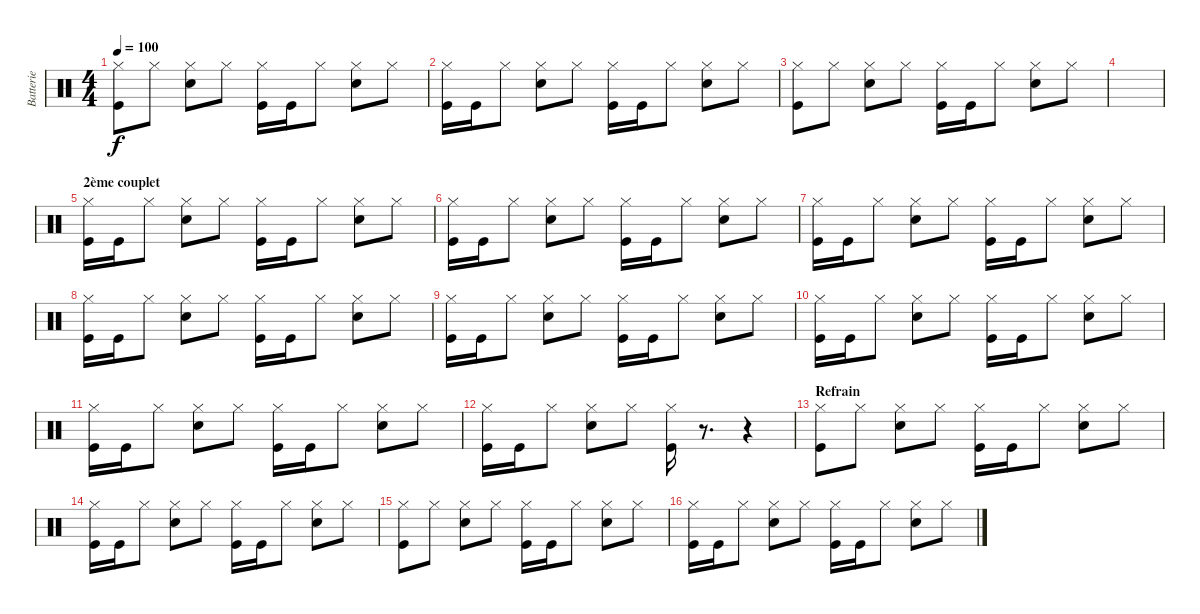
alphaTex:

\track ("Batterie " "Batterie ") {instrument percussion}
\staff {score}
\articulation defaults
\ts (4 4)
\tempo 100
\clef neutral
\ks c
("Hi-Hat (closed)" "Kick (hit)").8{dy f} "Hi-Hat (closed)".8 ("Electric Snare (hit)" "Hi-Hat (closed)").8 "Hi-Hat (closed)".8 ("Hi-Hat (closed)" "Kick (hit)").16 "Kick (hit)".16 "Hi-Hat (closed)".8 ("Electric Snare (hit)" "Hi-Hat (closed)").8 "Hi-Hat (closed)".8 |
("Hi-Hat (closed)" "Kick (hit)").16 "Kick (hit)".16 "Hi-Hat (closed)".8 ("Electric Snare (hit)" "Hi-Hat (closed)").8 "Hi-Hat (closed)".8 ("Hi-Hat (closed)" "Kick (hit)").16 "Kick (hit)".16 "Hi-Hat (closed)".8 ("Electric Snare (hit)" "Hi-Hat (closed)").8 "Hi-Hat (closed)".8 |
("Hi-Hat (closed)" "Kick (hit)").8 "Hi-Hat (closed)".8 ("Electric Snare (hit)" "Hi-Hat (closed)").8 "Hi-Hat (closed)".8 ("Hi-Hat (closed)" "Kick (hit)").16 "Kick (hit)".16 "Hi-Hat (closed)".8 ("Electric Snare (hit)" "Hi-Hat (closed)").8 "Hi-Hat (closed)".8 |
|
\section ("" "2ème couplet")
("Hi-Hat (closed)" "Kick (hit)").16 "Kick (hit)".16 "Hi-Hat (closed)".8 ("Electric Snare (hit)" "Hi-Hat (closed)").8 "Hi-Hat (closed)".8 ("Hi-Hat (closed)" "Kick (hit)").16 "Kick (hit)".16 "Hi-Hat (closed)".8 ("Electric Snare (hit)" "Hi-Hat (closed)").8 "Hi-Hat (closed)".8 |
("Hi-Hat (closed)" "Kick (hit)").16 "Kick (hit)".16 "Hi-Hat (closed)".8 ("Electric Snare (hit)" "Hi-Hat (closed)").8 "Hi-Hat (closed)".8 ("Hi-Hat (closed)" "Kick (hit)").16 "Kick (hit)".16 "Hi-Hat (closed)".8 ("Electric Snare (hit)" "Hi-Hat (closed)").8 "Hi-Hat (closed)".8 |
("Hi-Hat (closed)" "Kick (hit)").16 "Kick (hit)".16 "Hi-Hat (closed)".8 ("Electric Snare (hit)" "Hi-Hat (closed)").8 "Hi-Hat (closed)".8 ("Hi-Hat (closed)" "Kick (hit)").16 "Kick (hit)".16 "Hi-Hat (closed)".8 ("Electric Snare (hit)" "Hi-Hat (closed)").8 "Hi-Hat (closed)".8 |
("Hi-Hat (closed)" "Kick (hit)").16 "Kick (hit)".16 "Hi-Hat (closed)".8 ("Electric Snare (hit)" "Hi-Hat (closed)").8 "Hi-Hat (closed)".8 ("Hi-Hat (closed)" "Kick (hit)").16 "Kick (hit)".16 "Hi-Hat (closed)".8 ("Electric Snare (hit)" "Hi-Hat (closed)").8 "Hi-Hat (closed)".8 |
("Hi-Hat (closed)" "Kick (hit)").16 "Kick (hit)".16 "Hi-Hat (closed)".8 ("Electric Snare (hit)" "Hi-Hat (closed)").8 "Hi-Hat (closed)".8 ("Hi-Hat (closed)" "Kick (hit)").16 "Kick (hit)".16 "Hi-Hat (closed)".8 ("Electric Snare (hit)" "Hi-Hat (closed)").8 "Hi-Hat (closed)".8 |
("Hi-Hat (closed)" "Kick (hit)").16 "Kick (hit)".16 "Hi-Hat (closed)".8 ("Electric Snare (hit)" "Hi-Hat (closed)").8 "Hi-Hat (closed)".8 ("Hi-Hat (closed)" "Kick (hit)").16 "Kick (hit)".16 "Hi-Hat (closed)".8 ("Electric Snare (hit)" "Hi-Hat (closed)").8 "Hi-Hat (closed)".8 |
("Hi-Hat (closed)" "Kick (hit)").16 "Kick (hit)".16 "Hi-Hat (closed)".8 ("Electric Snare (hit)" "Hi-Hat (closed)").8 "Hi-Hat (closed)".8 ("Hi-Hat (closed)" "Kick (hit)").16 "Kick (hit)".16 "Hi-Hat (closed)".8 ("Electric Snare (hit)" "Hi-Hat (closed)").8 "Hi-Hat (closed)".8 |
("Hi-Hat (closed)" "Kick (hit)").16 "Kick (hit)".16 "Hi-Hat (closed)".8 ("Electric Snare (hit)" "Hi-Hat (closed)").8 "Hi-Hat (closed)".8 ("Hi-Hat (closed)" "Kick (hit)").16 r.8{d} r.4 |
\section ("" "Refrain")
("Hi-Hat (closed)" "Kick (hit)").8 "Hi-Hat (closed)".8 ("Electric Snare (hit)" "Hi-Hat (closed)").8 "Hi-Hat (closed)".8 ("Hi-Hat (closed)" "Kick (hit)").16 "Kick (hit)".16 "Hi-Hat (closed)".8 ("Electric Snare (hit)" "Hi-Hat (closed)").8 "Hi-Hat (closed)".8 |
("Hi-Hat (closed)" "Kick (hit)").16 "Kick (hit)".16 "Hi-Hat (closed)".8 ("Electric Snare (hit)" "Hi-Hat (closed)").8 "Hi-Hat (closed)".8 ("Hi-Hat (closed)" "Kick (hit)").16 "Kick (hit)".16 "Hi-Hat (closed)".8 ("Electric Snare (hit)" "Hi-Hat (closed)").8 "Hi-Hat (closed)".8 |
("Hi-Hat (closed)" "Kick (hit)").8 "Hi-Hat (closed)".8 ("Electric Snare (hit)" "Hi-Hat (closed)").8 "Hi-Hat (closed)".8 ("Hi-Hat (closed)" "Kick (hit)").16 "Kick (hit)".16 "Hi-Hat (closed)".8 ("Electric Snare (hit)" "Hi-Hat (closed)").8 "Hi-Hat (closed)".8 |
("Hi-Hat (closed)" "Kick (hit)").16 "Kick (hit)".16 "Hi-Hat (closed)".8 ("Electric Snare (hit)" "Hi-Hat (closed)").8 "Hi-Hat (closed)".8 ("Hi-Hat (closed)" "Kick (hit)").16 "Kick (hit)".16 "Hi-Hat (closed)".8 ("Electric Snare (hit)" "Hi-Hat (closed)").8 "Hi-Hat (closed)".8
